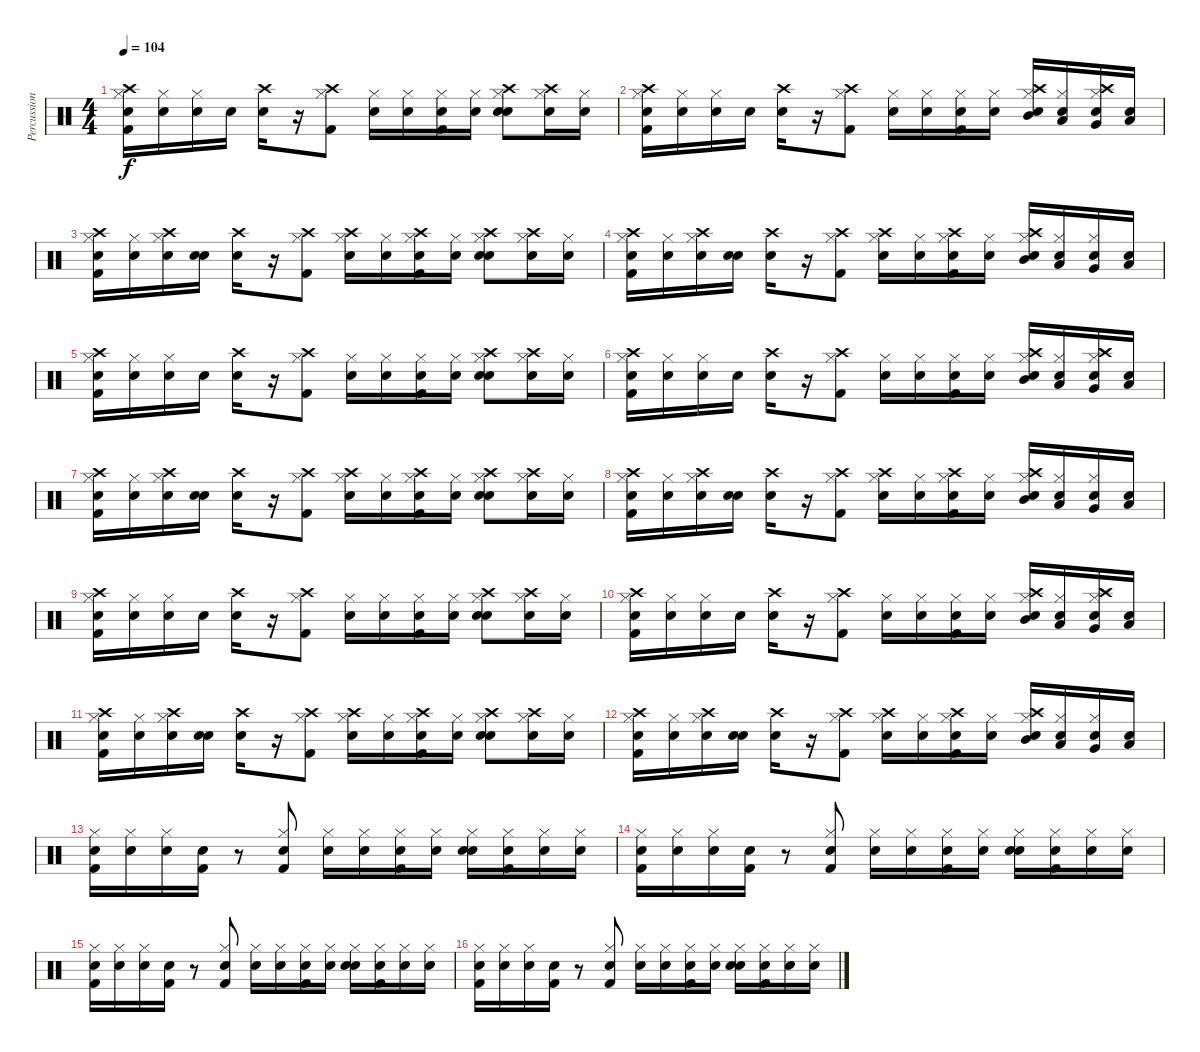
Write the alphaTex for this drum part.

\track ("Percussion" "Percussion") {instrument percussion}
\staff {score}
\articulation defaults
\ts (4 4)
\tempo 104
\clef neutral
\ks c
("Snare (hit)" "Kick (hit) 2" "Hi-Hat (closed)" "Crash high (hit)").16{dy f} ("Snare (hit)" "Hi-Hat (closed)").16 ("Snare (hit)" "Hi-Hat (closed)").16 "Electric Snare (hit)".16 ("Snare (hit)" "Crash high (hit)").16 r.16 ("Hi-Hat (closed)" "Kick (hit) 2" "Crash high (hit)").8 ("Snare (hit)" "Hi-Hat (closed)").16 ("Snare (hit)" "Hi-Hat (closed)").16 ("Snare (hit)" "Hi-Hat (closed)" "Kick (hit) 2").16 ("Snare (hit)" "Hi-Hat (closed)").16 ("Snare (hit)" "Hi-Hat (closed)" "Electric Snare (hit)" "Crash high (hit)").8 ("Snare (hit)" "Hi-Hat (closed)" "Crash high (hit)").16 ("Snare (hit)" "Hi-Hat (closed)").16 |
("Snare (hit)" "Hi-Hat (closed)" "Kick (hit) 2" "Crash high (hit)").16 ("Snare (hit)" "Hi-Hat (closed)").16 ("Snare (hit)" "Hi-Hat (closed)").16 "Electric Snare (hit)".16 ("Snare (hit)" "Crash high (hit)").16 r.16 ("Kick (hit) 2" "Hi-Hat (closed)" "Crash high (hit)").8 ("Snare (hit)" "Hi-Hat (closed)").16 ("Snare (hit)" "Hi-Hat (closed)").16 ("Snare (hit)" "Kick (hit) 2" "Hi-Hat (closed)").16 ("Snare (hit)" "Hi-Hat (closed)").16 ("Snare (hit)" "Mid Tom (hit)" "Hi-Hat (closed)" "Crash high (hit)").16 ("Snare (hit)" "Hi-Hat (closed)" "Low Tom (hit)").16 ("Snare (hit)" "Hi-Hat (closed)" "Very Low Tom (hit)" "Crash high (hit)").16 ("Snare (hit)" "Low Floor Tom (hit)").16 |
("Snare (hit)" "Hi-Hat (closed)" "Kick (hit) 2" "Crash high (hit)").16 ("Snare (hit)" "Hi-Hat (closed)").16 ("Snare (hit)" "Hi-Hat (closed)" "Crash high (hit)").16 ("Snare (hit)" "Electric Snare (hit)").16 ("Snare (hit)" "Crash high (hit)").16 r.16 ("Kick (hit) 2" "Hi-Hat (closed)" "Crash high (hit)").8 ("Snare (hit)" "Hi-Hat (closed)" "Crash high (hit)").16 ("Snare (hit)" "Hi-Hat (closed)").16 ("Snare (hit)" "Kick (hit) 2" "Hi-Hat (closed)" "Crash high (hit)").16 ("Snare (hit)" "Hi-Hat (closed)").16 ("Snare (hit)" "Electric Snare (hit)" "Hi-Hat (closed)" "Crash high (hit)").8 ("Snare (hit)" "Hi-Hat (closed)" "Crash high (hit)").16 ("Snare (hit)" "Hi-Hat (closed)").16 |
("Snare (hit)" "Hi-Hat (closed)" "Kick (hit) 2" "Crash high (hit)").16 ("Snare (hit)" "Hi-Hat (closed)").16 ("Snare (hit)" "Crash high (hit)" "Hi-Hat (closed)").16 ("Snare (hit)" "Electric Snare (hit)").16 ("Snare (hit)" "Crash high (hit)").16 r.16 ("Kick (hit) 2" "Hi-Hat (closed)" "Crash high (hit)").8 ("Snare (hit)" "Hi-Hat (closed)" "Crash high (hit)").16 ("Snare (hit)" "Hi-Hat (closed)").16 ("Snare (hit)" "Kick (hit) 2" "Hi-Hat (closed)" "Crash high (hit)").16 ("Snare (hit)" "Hi-Hat (closed)").16 ("Snare (hit)" "Crash high (hit)" "Hi-Hat (closed)" "Mid Tom (hit)").16 ("Snare (hit)" "Low Tom (hit)" "Hi-Hat (closed)").16 ("Snare (hit)" "Very Low Tom (hit)" "Hi-Hat (closed)").16 ("Snare (hit)" "Low Floor Tom (hit)").16 |
("Snare (hit)" "Kick (hit) 2" "Hi-Hat (closed)" "Crash high (hit)").16 ("Snare (hit)" "Hi-Hat (closed)").16 ("Snare (hit)" "Hi-Hat (closed)").16 "Electric Snare (hit)".16 ("Snare (hit)" "Crash high (hit)").16 r.16 ("Hi-Hat (closed)" "Kick (hit) 2" "Crash high (hit)").8 ("Snare (hit)" "Hi-Hat (closed)").16 ("Snare (hit)" "Hi-Hat (closed)").16 ("Snare (hit)" "Hi-Hat (closed)" "Kick (hit) 2").16 ("Snare (hit)" "Hi-Hat (closed)").16 ("Snare (hit)" "Hi-Hat (closed)" "Electric Snare (hit)" "Crash high (hit)").8 ("Snare (hit)" "Hi-Hat (closed)" "Crash high (hit)").16 ("Snare (hit)" "Hi-Hat (closed)").16 |
("Snare (hit)" "Hi-Hat (closed)" "Kick (hit) 2" "Crash high (hit)").16 ("Snare (hit)" "Hi-Hat (closed)").16 ("Snare (hit)" "Hi-Hat (closed)").16 "Electric Snare (hit)".16 ("Snare (hit)" "Crash high (hit)").16 r.16 ("Kick (hit) 2" "Hi-Hat (closed)" "Crash high (hit)").8 ("Snare (hit)" "Hi-Hat (closed)").16 ("Snare (hit)" "Hi-Hat (closed)").16 ("Snare (hit)" "Kick (hit) 2" "Hi-Hat (closed)").16 ("Snare (hit)" "Hi-Hat (closed)").16 ("Snare (hit)" "Mid Tom (hit)" "Hi-Hat (closed)" "Crash high (hit)").16 ("Snare (hit)" "Hi-Hat (closed)" "Low Tom (hit)").16 ("Snare (hit)" "Hi-Hat (closed)" "Very Low Tom (hit)" "Crash high (hit)").16 ("Snare (hit)" "Low Floor Tom (hit)").16 |
("Snare (hit)" "Hi-Hat (closed)" "Kick (hit) 2" "Crash high (hit)").16 ("Snare (hit)" "Hi-Hat (closed)").16 ("Snare (hit)" "Hi-Hat (closed)" "Crash high (hit)").16 ("Snare (hit)" "Electric Snare (hit)").16 ("Snare (hit)" "Crash high (hit)").16 r.16 ("Kick (hit) 2" "Hi-Hat (closed)" "Crash high (hit)").8 ("Snare (hit)" "Hi-Hat (closed)" "Crash high (hit)").16 ("Snare (hit)" "Hi-Hat (closed)").16 ("Snare (hit)" "Kick (hit) 2" "Hi-Hat (closed)" "Crash high (hit)").16 ("Snare (hit)" "Hi-Hat (closed)").16 ("Snare (hit)" "Electric Snare (hit)" "Hi-Hat (closed)" "Crash high (hit)").8 ("Snare (hit)" "Hi-Hat (closed)" "Crash high (hit)").16 ("Snare (hit)" "Hi-Hat (closed)").16 |
("Snare (hit)" "Hi-Hat (closed)" "Kick (hit) 2" "Crash high (hit)").16 ("Snare (hit)" "Hi-Hat (closed)").16 ("Snare (hit)" "Crash high (hit)" "Hi-Hat (closed)").16 ("Snare (hit)" "Electric Snare (hit)").16 ("Snare (hit)" "Crash high (hit)").16 r.16 ("Kick (hit) 2" "Hi-Hat (closed)" "Crash high (hit)").8 ("Snare (hit)" "Hi-Hat (closed)" "Crash high (hit)").16 ("Snare (hit)" "Hi-Hat (closed)").16 ("Snare (hit)" "Kick (hit) 2" "Hi-Hat (closed)" "Crash high (hit)").16 ("Snare (hit)" "Hi-Hat (closed)").16 ("Snare (hit)" "Crash high (hit)" "Hi-Hat (closed)" "Mid Tom (hit)").16 ("Snare (hit)" "Low Tom (hit)" "Hi-Hat (closed)").16 ("Snare (hit)" "Very Low Tom (hit)" "Hi-Hat (closed)").16 ("Snare (hit)" "Low Floor Tom (hit)").16 |
("Snare (hit)" "Kick (hit) 2" "Hi-Hat (closed)" "Crash high (hit)").16 ("Snare (hit)" "Hi-Hat (closed)").16 ("Snare (hit)" "Hi-Hat (closed)").16 "Electric Snare (hit)".16 ("Snare (hit)" "Crash high (hit)").16 r.16 ("Hi-Hat (closed)" "Kick (hit) 2" "Crash high (hit)").8 ("Snare (hit)" "Hi-Hat (closed)").16 ("Snare (hit)" "Hi-Hat (closed)").16 ("Snare (hit)" "Hi-Hat (closed)" "Kick (hit) 2").16 ("Snare (hit)" "Hi-Hat (closed)").16 ("Snare (hit)" "Hi-Hat (closed)" "Electric Snare (hit)" "Crash high (hit)").8 ("Snare (hit)" "Hi-Hat (closed)" "Crash high (hit)").16 ("Snare (hit)" "Hi-Hat (closed)").16 |
("Snare (hit)" "Hi-Hat (closed)" "Kick (hit) 2" "Crash high (hit)").16 ("Snare (hit)" "Hi-Hat (closed)").16 ("Snare (hit)" "Hi-Hat (closed)").16 "Electric Snare (hit)".16 ("Snare (hit)" "Crash high (hit)").16 r.16 ("Kick (hit) 2" "Hi-Hat (closed)" "Crash high (hit)").8 ("Snare (hit)" "Hi-Hat (closed)").16 ("Snare (hit)" "Hi-Hat (closed)").16 ("Snare (hit)" "Kick (hit) 2" "Hi-Hat (closed)").16 ("Snare (hit)" "Hi-Hat (closed)").16 ("Snare (hit)" "Mid Tom (hit)" "Hi-Hat (closed)" "Crash high (hit)").16 ("Snare (hit)" "Hi-Hat (closed)" "Low Tom (hit)").16 ("Snare (hit)" "Hi-Hat (closed)" "Very Low Tom (hit)" "Crash high (hit)").16 ("Snare (hit)" "Low Floor Tom (hit)").16 |
("Snare (hit)" "Hi-Hat (closed)" "Kick (hit) 2" "Crash high (hit)").16 ("Snare (hit)" "Hi-Hat (closed)").16 ("Snare (hit)" "Hi-Hat (closed)" "Crash high (hit)").16 ("Snare (hit)" "Electric Snare (hit)").16 ("Snare (hit)" "Crash high (hit)").16 r.16 ("Kick (hit) 2" "Hi-Hat (closed)" "Crash high (hit)").8 ("Snare (hit)" "Hi-Hat (closed)" "Crash high (hit)").16 ("Snare (hit)" "Hi-Hat (closed)").16 ("Snare (hit)" "Kick (hit) 2" "Hi-Hat (closed)" "Crash high (hit)").16 ("Snare (hit)" "Hi-Hat (closed)").16 ("Snare (hit)" "Electric Snare (hit)" "Hi-Hat (closed)" "Crash high (hit)").8 ("Snare (hit)" "Hi-Hat (closed)" "Crash high (hit)").16 ("Snare (hit)" "Hi-Hat (closed)").16 |
("Snare (hit)" "Hi-Hat (closed)" "Kick (hit) 2" "Crash high (hit)").16 ("Snare (hit)" "Hi-Hat (closed)").16 ("Snare (hit)" "Crash high (hit)" "Hi-Hat (closed)").16 ("Snare (hit)" "Electric Snare (hit)").16 ("Snare (hit)" "Crash high (hit)").16 r.16 ("Kick (hit) 2" "Hi-Hat (closed)" "Crash high (hit)").8 ("Snare (hit)" "Hi-Hat (closed)" "Crash high (hit)").16 ("Snare (hit)" "Hi-Hat (closed)").16 ("Snare (hit)" "Kick (hit) 2" "Hi-Hat (closed)" "Crash high (hit)").16 ("Snare (hit)" "Hi-Hat (closed)").16 ("Snare (hit)" "Crash high (hit)" "Hi-Hat (closed)" "Mid Tom (hit)").16 ("Snare (hit)" "Low Tom (hit)" "Hi-Hat (closed)").16 ("Snare (hit)" "Very Low Tom (hit)" "Hi-Hat (closed)").16 ("Snare (hit)" "Low Floor Tom (hit)").16 |
("Snare (hit)" "Hi-Hat (closed)" "Kick (hit) 2").16 ("Snare (hit)" "Hi-Hat (closed)").16 ("Snare (hit)" "Hi-Hat (closed)").16 ("Electric Snare (hit)" "Kick (hit) 2").16 r.8 ("Hi-Hat (closed)" "Kick (hit) 2" "Electric Snare (hit)").8 ("Snare (hit)" "Hi-Hat (closed)").16 ("Snare (hit)" "Hi-Hat (closed)").16 ("Snare (hit)" "Kick (hit) 2" "Hi-Hat (closed)").16 ("Snare (hit)" "Hi-Hat (closed)").16 ("Snare (hit)" "Hi-Hat (closed)" "Electric Snare (hit)").16 ("Snare (hit)" "Kick (hit) 2" "Hi-Hat (closed)").16 ("Snare (hit)" "Hi-Hat (closed)").16 ("Snare (hit)" "Hi-Hat (closed)").16 |
("Snare (hit)" "Kick (hit) 2" "Hi-Hat (closed)").16 ("Snare (hit)" "Hi-Hat (closed)").16 ("Snare (hit)" "Hi-Hat (closed)").16 ("Electric Snare (hit)" "Kick (hit) 2").16 r.8 ("Hi-Hat (closed)" "Electric Snare (hit)" "Kick (hit) 2").8 ("Snare (hit)" "Hi-Hat (closed)").16 ("Snare (hit)" "Hi-Hat (closed)").16 ("Snare (hit)" "Hi-Hat (closed)" "Kick (hit) 2").16 ("Snare (hit)" "Hi-Hat (closed)").16 ("Snare (hit)" "Hi-Hat (closed)" "Electric Snare (hit)").16 ("Snare (hit)" "Hi-Hat (closed)" "Kick (hit) 2").16 ("Snare (hit)" "Hi-Hat (closed)").16 ("Snare (hit)" "Hi-Hat (closed)").16 |
("Snare (hit)" "Kick (hit) 2" "Hi-Hat (closed)").16 ("Snare (hit)" "Hi-Hat (closed)").16 ("Snare (hit)" "Hi-Hat (closed)").16 ("Electric Snare (hit)" "Kick (hit) 2").16 r.8 ("Hi-Hat (closed)" "Electric Snare (hit)" "Kick (hit) 2").8 ("Snare (hit)" "Hi-Hat (closed)").16 ("Snare (hit)" "Hi-Hat (closed)").16 ("Snare (hit)" "Hi-Hat (closed)" "Kick (hit) 2").16 ("Snare (hit)" "Hi-Hat (closed)").16 ("Snare (hit)" "Hi-Hat (closed)" "Electric Snare (hit)").16 ("Snare (hit)" "Hi-Hat (closed)" "Kick (hit) 2").16 ("Snare (hit)" "Hi-Hat (closed)").16 ("Snare (hit)" "Hi-Hat (closed)").16 |
("Snare (hit)" "Kick (hit) 2" "Hi-Hat (closed)").16 ("Snare (hit)" "Hi-Hat (closed)").16 ("Snare (hit)" "Hi-Hat (closed)").16 ("Electric Snare (hit)" "Kick (hit) 2").16 r.8 ("Hi-Hat (closed)" "Electric Snare (hit)" "Kick (hit) 2").8 ("Snare (hit)" "Hi-Hat (closed)").16 ("Snare (hit)" "Hi-Hat (closed)").16 ("Snare (hit)" "Hi-Hat (closed)" "Kick (hit) 2").16 ("Snare (hit)" "Hi-Hat (closed)").16 ("Snare (hit)" "Hi-Hat (closed)" "Electric Snare (hit)").16 ("Snare (hit)" "Hi-Hat (closed)" "Kick (hit) 2").16 ("Snare (hit)" "Hi-Hat (closed)").16 ("Snare (hit)" "Hi-Hat (closed)").16
